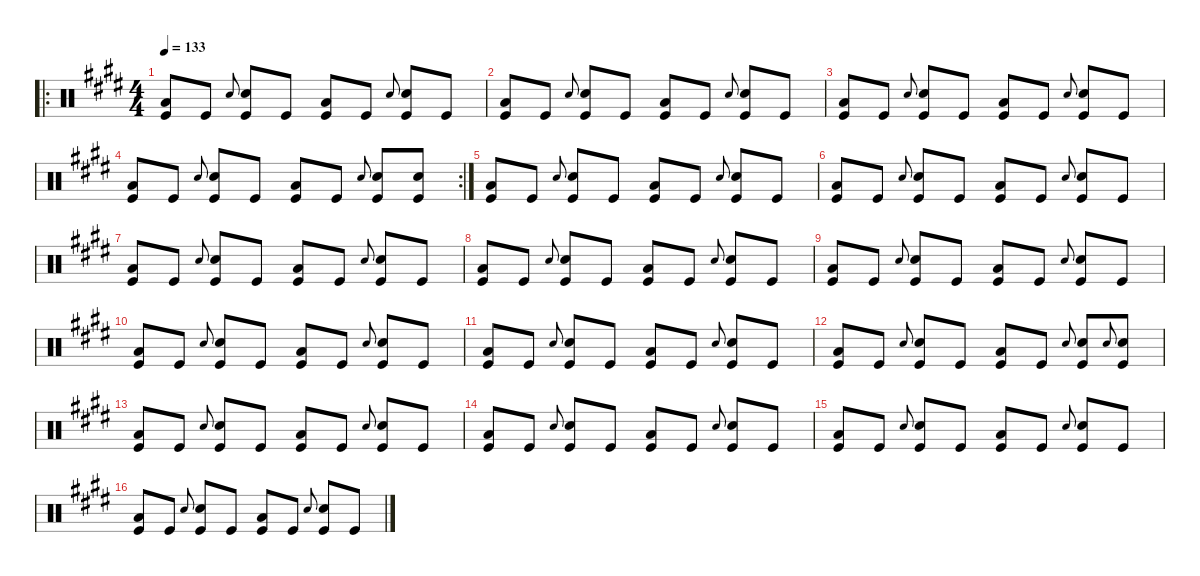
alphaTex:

\defaultSystemsLayout 4
\hideDynamics
\bracketExtendMode nobrackets
\singleTrackTrackNamePolicy hidden
\multiTrackTrackNamePolicy hidden
\firstSystemTrackNameMode fullname
\firstSystemTrackNameOrientation horizontal
\otherSystemsTrackNameOrientation horizontal
\track ("RVP" "drm.") {instrument percussion}
\staff {score}
\articulation defaults
\ro
\ts (4 4)
\beaming (8 2 2 2 2)
\tempo 133
\clef neutral
\ks e
("Low Floor Tom (hit)"{acc forcenatural} "Kick (hit)"{acc forcenatural}).8{dy f beam Up} "Kick (hit)"{acc forcenatural}.8{dy fff beam Up} "Snare (hit) 2"{acc forcenatural}.8{gr onbeat dy ff beam Up} ("Snare (hit) 2"{acc forcenatural} "Kick (hit)"{acc forcenatural}).8{dy fff beam Up} "Kick (hit)"{acc forcenatural}.8{beam Up} ("Low Floor Tom (hit)"{acc forcenatural} "Kick (hit)"{acc forcenatural}).8{dy f beam Up} "Kick (hit)"{acc forcenatural}.8{dy fff beam Up} "Snare (hit) 2"{acc forcenatural}.8{gr onbeat dy ff beam Up} ("Snare (hit) 2"{acc forcenatural} "Kick (hit)"{acc forcenatural}).8{dy fff beam Up} "Kick (hit)"{acc forcenatural}.8{beam Up} |
("Low Floor Tom (hit)"{acc forcenatural} "Kick (hit)"{acc forcenatural}).8{dy f beam Up} "Kick (hit)"{acc forcenatural}.8{dy fff beam Up} "Snare (hit) 2"{acc forcenatural}.8{gr onbeat dy ff beam Up} ("Snare (hit) 2"{acc forcenatural} "Kick (hit)"{acc forcenatural}).8{dy fff beam Up} "Kick (hit)"{acc forcenatural}.8{beam Up} ("Low Floor Tom (hit)"{acc forcenatural} "Kick (hit)"{acc forcenatural}).8{dy f beam Up} "Kick (hit)"{acc forcenatural}.8{dy fff beam Up} "Snare (hit) 2"{acc forcenatural}.8{gr onbeat dy ff beam Up} ("Snare (hit) 2"{acc forcenatural} "Kick (hit)"{acc forcenatural}).8{dy fff beam Up} "Kick (hit)"{acc forcenatural}.8{beam Up} |
("Low Floor Tom (hit)"{acc forcenatural} "Kick (hit)"{acc forcenatural}).8{dy f beam Up} "Kick (hit)"{acc forcenatural}.8{dy fff beam Up} "Snare (hit) 2"{acc forcenatural}.8{gr onbeat dy ff beam Up} ("Snare (hit) 2"{acc forcenatural} "Kick (hit)"{acc forcenatural}).8{dy fff beam Up} "Kick (hit)"{acc forcenatural}.8{beam Up} ("Low Floor Tom (hit)"{acc forcenatural} "Kick (hit)"{acc forcenatural}).8{dy f beam Up} "Kick (hit)"{acc forcenatural}.8{dy fff beam Up} "Snare (hit) 2"{acc forcenatural}.8{gr onbeat dy ff beam Up} ("Snare (hit) 2"{acc forcenatural} "Kick (hit)"{acc forcenatural}).8{dy fff beam Up} "Kick (hit)"{acc forcenatural}.8{beam Up} |
\rc 2
("Low Floor Tom (hit)"{acc forcenatural} "Kick (hit)"{acc forcenatural}).8{dy f beam Up} "Kick (hit)"{acc forcenatural}.8{dy fff beam Up} "Snare (hit) 2"{acc forcenatural}.8{gr onbeat dy ff beam Up} ("Snare (hit) 2"{acc forcenatural} "Kick (hit)"{acc forcenatural}).8{dy fff beam Up} "Kick (hit)"{acc forcenatural}.8{beam Up} ("Low Floor Tom (hit)"{acc forcenatural} "Kick (hit)"{acc forcenatural}).8{dy f beam Up} "Kick (hit)"{acc forcenatural}.8{dy fff beam Up} "Snare (hit) 2"{acc forcenatural}.8{gr onbeat dy ff beam Up} ("Snare (hit) 2"{acc forcenatural} "Kick (hit)"{acc forcenatural}).8{dy fff beam Up} ("Snare (hit) 2"{acc forcenatural} "Kick (hit)"{acc forcenatural}).8{beam Up} |
("Low Floor Tom (hit)"{acc forcenatural} "Kick (hit)"{acc forcenatural}).8{dy f beam Up} "Kick (hit)"{acc forcenatural}.8{dy fff beam Up} "Snare (hit) 2"{acc forcenatural}.8{gr onbeat dy ff beam Up} ("Snare (hit) 2"{acc forcenatural} "Kick (hit)"{acc forcenatural}).8{dy fff beam Up} "Kick (hit)"{acc forcenatural}.8{beam Up} ("Low Floor Tom (hit)"{acc forcenatural} "Kick (hit)"{acc forcenatural}).8{dy f beam Up} "Kick (hit)"{acc forcenatural}.8{dy fff beam Up} "Snare (hit) 2"{acc forcenatural}.8{gr onbeat dy ff beam Up} ("Snare (hit) 2"{acc forcenatural} "Kick (hit)"{acc forcenatural}).8{dy fff beam Up} "Kick (hit)"{acc forcenatural}.8{beam Up} |
("Low Floor Tom (hit)"{acc forcenatural} "Kick (hit)"{acc forcenatural}).8{dy f beam Up} "Kick (hit)"{acc forcenatural}.8{dy fff beam Up} "Snare (hit) 2"{acc forcenatural}.8{gr onbeat dy ff beam Up} ("Snare (hit) 2"{acc forcenatural} "Kick (hit)"{acc forcenatural}).8{dy fff beam Up} "Kick (hit)"{acc forcenatural}.8{beam Up} ("Low Floor Tom (hit)"{acc forcenatural} "Kick (hit)"{acc forcenatural}).8{dy f beam Up} "Kick (hit)"{acc forcenatural}.8{dy fff beam Up} "Snare (hit) 2"{acc forcenatural}.8{gr onbeat dy ff beam Up} ("Snare (hit) 2"{acc forcenatural} "Kick (hit)"{acc forcenatural}).8{dy fff beam Up} "Kick (hit)"{acc forcenatural}.8{beam Up} |
("Low Floor Tom (hit)"{acc forcenatural} "Kick (hit)"{acc forcenatural}).8{dy f beam Up} "Kick (hit)"{acc forcenatural}.8{dy fff beam Up} "Snare (hit) 2"{acc forcenatural}.8{gr onbeat dy ff beam Up} ("Snare (hit) 2"{acc forcenatural} "Kick (hit)"{acc forcenatural}).8{dy fff beam Up} "Kick (hit)"{acc forcenatural}.8{beam Up} ("Low Floor Tom (hit)"{acc forcenatural} "Kick (hit)"{acc forcenatural}).8{dy f beam Up} "Kick (hit)"{acc forcenatural}.8{dy fff beam Up} "Snare (hit) 2"{acc forcenatural}.8{gr onbeat dy ff beam Up} ("Snare (hit) 2"{acc forcenatural} "Kick (hit)"{acc forcenatural}).8{dy fff beam Up} "Kick (hit)"{acc forcenatural}.8{beam Up} |
("Low Floor Tom (hit)"{acc forcenatural} "Kick (hit)"{acc forcenatural}).8{dy f beam Up} "Kick (hit)"{acc forcenatural}.8{dy fff beam Up} "Snare (hit) 2"{acc forcenatural}.8{gr onbeat dy ff beam Up} ("Snare (hit) 2"{acc forcenatural} "Kick (hit)"{acc forcenatural}).8{dy fff beam Up} "Kick (hit)"{acc forcenatural}.8{beam Up} ("Low Floor Tom (hit)"{acc forcenatural} "Kick (hit)"{acc forcenatural}).8{dy f beam Up} "Kick (hit)"{acc forcenatural}.8{dy fff beam Up} "Snare (hit) 2"{acc forcenatural}.8{gr onbeat dy ff beam Up} ("Snare (hit) 2"{acc forcenatural} "Kick (hit)"{acc forcenatural}).8{dy fff beam Up} "Kick (hit)"{acc forcenatural}.8{beam Up} |
("Low Floor Tom (hit)"{acc forcenatural} "Kick (hit)"{acc forcenatural}).8{dy f beam Up} "Kick (hit)"{acc forcenatural}.8{dy fff beam Up} "Snare (hit) 2"{acc forcenatural}.8{gr onbeat dy ff beam Up} ("Snare (hit) 2"{acc forcenatural} "Kick (hit)"{acc forcenatural}).8{dy fff beam Up} "Kick (hit)"{acc forcenatural}.8{beam Up} ("Low Floor Tom (hit)"{acc forcenatural} "Kick (hit)"{acc forcenatural}).8{dy f beam Up} "Kick (hit)"{acc forcenatural}.8{dy fff beam Up} "Snare (hit) 2"{acc forcenatural}.8{gr onbeat dy ff beam Up} ("Snare (hit) 2"{acc forcenatural} "Kick (hit)"{acc forcenatural}).8{dy fff beam Up} "Kick (hit)"{acc forcenatural}.8{beam Up} |
("Low Floor Tom (hit)"{acc forcenatural} "Kick (hit)"{acc forcenatural}).8{dy f beam Up} "Kick (hit)"{acc forcenatural}.8{dy fff beam Up} "Snare (hit) 2"{acc forcenatural}.8{gr onbeat dy ff beam Up} ("Snare (hit) 2"{acc forcenatural} "Kick (hit)"{acc forcenatural}).8{dy fff beam Up} "Kick (hit)"{acc forcenatural}.8{beam Up} ("Low Floor Tom (hit)"{acc forcenatural} "Kick (hit)"{acc forcenatural}).8{dy f beam Up} "Kick (hit)"{acc forcenatural}.8{dy fff beam Up} "Snare (hit) 2"{acc forcenatural}.8{gr onbeat dy ff beam Up} ("Snare (hit) 2"{acc forcenatural} "Kick (hit)"{acc forcenatural}).8{dy fff beam Up} "Kick (hit)"{acc forcenatural}.8{beam Up} |
("Low Floor Tom (hit)"{acc forcenatural} "Kick (hit)"{acc forcenatural}).8{dy f beam Up} "Kick (hit)"{acc forcenatural}.8{dy fff beam Up} "Snare (hit) 2"{acc forcenatural}.8{gr onbeat dy ff beam Up} ("Snare (hit) 2"{acc forcenatural} "Kick (hit)"{acc forcenatural}).8{dy fff beam Up} "Kick (hit)"{acc forcenatural}.8{beam Up} ("Low Floor Tom (hit)"{acc forcenatural} "Kick (hit)"{acc forcenatural}).8{dy f beam Up} "Kick (hit)"{acc forcenatural}.8{dy fff beam Up} "Snare (hit) 2"{acc forcenatural}.8{gr onbeat dy ff beam Up} ("Snare (hit) 2"{acc forcenatural} "Kick (hit)"{acc forcenatural}).8{dy fff beam Up} "Kick (hit)"{acc forcenatural}.8{beam Up} |
("Low Floor Tom (hit)"{acc forcenatural} "Kick (hit)"{acc forcenatural}).8{dy f beam Up} "Kick (hit)"{acc forcenatural}.8{dy fff beam Up} "Snare (hit) 2"{acc forcenatural}.8{gr onbeat dy ff beam Up} ("Snare (hit) 2"{acc forcenatural} "Kick (hit)"{acc forcenatural}).8{dy fff beam Up} "Kick (hit)"{acc forcenatural}.8{beam Up} ("Low Floor Tom (hit)"{acc forcenatural} "Kick (hit)"{acc forcenatural}).8{dy f beam Up} "Kick (hit)"{acc forcenatural}.8{dy fff beam Up} "Snare (hit) 2"{acc forcenatural}.8{gr onbeat dy ff beam Up} ("Snare (hit) 2"{acc forcenatural} "Kick (hit)"{acc forcenatural}).8{dy fff beam Up} "Snare (hit) 2"{acc forcenatural}.8{gr onbeat dy ff beam Up} ("Snare (hit) 2"{acc forcenatural} "Kick (hit)"{acc forcenatural}).8{dy fff beam Up} |
("Low Floor Tom (hit)"{acc forcenatural} "Kick (hit)"{acc forcenatural}).8{dy f beam Up} "Kick (hit)"{acc forcenatural}.8{dy fff beam Up} "Snare (hit) 2"{acc forcenatural}.8{gr onbeat dy ff beam Up} ("Snare (hit) 2"{acc forcenatural} "Kick (hit)"{acc forcenatural}).8{dy fff beam Up} "Kick (hit)"{acc forcenatural}.8{beam Up} ("Low Floor Tom (hit)"{acc forcenatural} "Kick (hit)"{acc forcenatural}).8{dy f beam Up} "Kick (hit)"{acc forcenatural}.8{dy fff beam Up} "Snare (hit) 2"{acc forcenatural}.8{gr onbeat dy ff beam Up} ("Snare (hit) 2"{acc forcenatural} "Kick (hit)"{acc forcenatural}).8{dy fff beam Up} "Kick (hit)"{acc forcenatural}.8{beam Up} |
("Low Floor Tom (hit)"{acc forcenatural} "Kick (hit)"{acc forcenatural}).8{dy f beam Up} "Kick (hit)"{acc forcenatural}.8{dy fff beam Up} "Snare (hit) 2"{acc forcenatural}.8{gr onbeat dy ff beam Up} ("Snare (hit) 2"{acc forcenatural} "Kick (hit)"{acc forcenatural}).8{dy fff beam Up} "Kick (hit)"{acc forcenatural}.8{beam Up} ("Low Floor Tom (hit)"{acc forcenatural} "Kick (hit)"{acc forcenatural}).8{dy f beam Up} "Kick (hit)"{acc forcenatural}.8{dy fff beam Up} "Snare (hit) 2"{acc forcenatural}.8{gr onbeat dy ff beam Up} ("Snare (hit) 2"{acc forcenatural} "Kick (hit)"{acc forcenatural}).8{dy fff beam Up} "Kick (hit)"{acc forcenatural}.8{beam Up} |
("Low Floor Tom (hit)"{acc forcenatural} "Kick (hit)"{acc forcenatural}).8{dy f beam Up} "Kick (hit)"{acc forcenatural}.8{dy fff beam Up} "Snare (hit) 2"{acc forcenatural}.8{gr onbeat dy ff beam Up} ("Snare (hit) 2"{acc forcenatural} "Kick (hit)"{acc forcenatural}).8{dy fff beam Up} "Kick (hit)"{acc forcenatural}.8{beam Up} ("Low Floor Tom (hit)"{acc forcenatural} "Kick (hit)"{acc forcenatural}).8{dy f beam Up} "Kick (hit)"{acc forcenatural}.8{dy fff beam Up} "Snare (hit) 2"{acc forcenatural}.8{gr onbeat dy ff beam Up} ("Snare (hit) 2"{acc forcenatural} "Kick (hit)"{acc forcenatural}).8{dy fff beam Up} "Kick (hit)"{acc forcenatural}.8{beam Up} |
("Low Floor Tom (hit)"{acc forcenatural} "Kick (hit)"{acc forcenatural}).8{dy f beam Up} "Kick (hit)"{acc forcenatural}.8{dy fff beam Up} "Snare (hit) 2"{acc forcenatural}.8{gr onbeat dy ff beam Up} ("Snare (hit) 2"{acc forcenatural} "Kick (hit)"{acc forcenatural}).8{dy fff beam Up} "Kick (hit)"{acc forcenatural}.8{beam Up} ("Low Floor Tom (hit)"{acc forcenatural} "Kick (hit)"{acc forcenatural}).8{dy f beam Up} "Kick (hit)"{acc forcenatural}.8{dy fff beam Up} "Snare (hit) 2"{acc forcenatural}.8{gr onbeat dy ff beam Up} ("Snare (hit) 2"{acc forcenatural} "Kick (hit)"{acc forcenatural}).8{dy fff beam Up} "Kick (hit)"{acc forcenatural}.8{beam Up}
